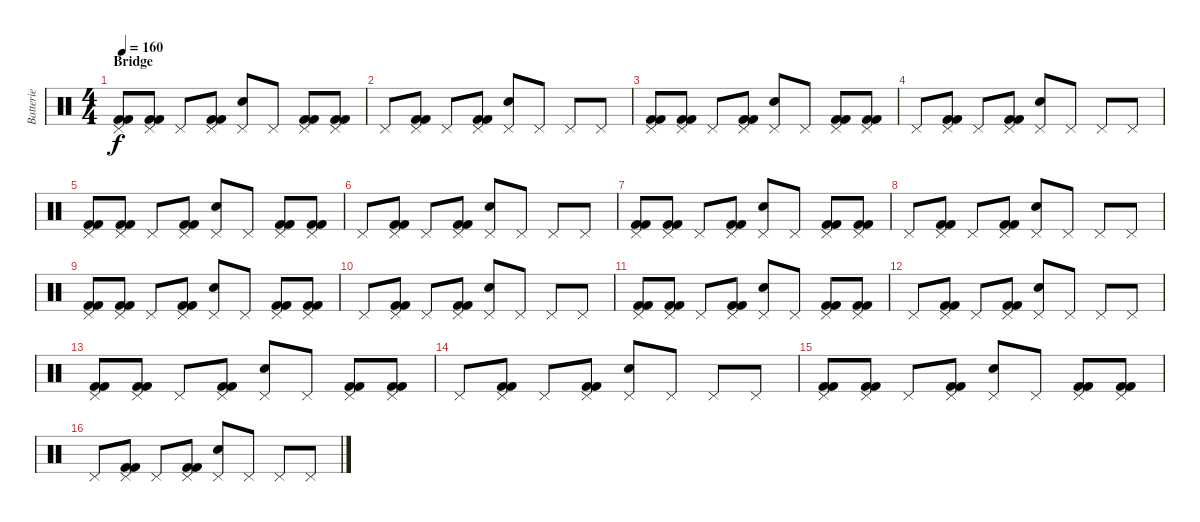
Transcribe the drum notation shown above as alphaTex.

\track ("Batterie" "Batterie") {instrument percussion}
\staff {score}
\articulation defaults
\ts (4 4)
\section ("" "Bridge")
\tempo 160
\clef neutral
\ks c
("Pedal Hi-Hat (hit)" "Kick (hit) 2" "Kick (hit) 2").8{dy f} ("Pedal Hi-Hat (hit)" "Kick (hit) 2" "Kick (hit) 2").8 "Pedal Hi-Hat (hit)".8 ("Pedal Hi-Hat (hit)" "Kick (hit) 2" "Kick (hit) 2").8 ("Pedal Hi-Hat (hit)" "Electric Snare (hit)").8 "Pedal Hi-Hat (hit)".8 ("Pedal Hi-Hat (hit)" "Kick (hit) 2" "Kick (hit) 2").8 ("Pedal Hi-Hat (hit)" "Kick (hit) 2" "Kick (hit) 2").8 |
"Pedal Hi-Hat (hit)".8 ("Pedal Hi-Hat (hit)" "Kick (hit) 2" "Kick (hit) 2").8 "Pedal Hi-Hat (hit)".8 ("Pedal Hi-Hat (hit)" "Kick (hit) 2" "Kick (hit) 2").8 ("Pedal Hi-Hat (hit)" "Electric Snare (hit)").8 "Pedal Hi-Hat (hit)".8 "Pedal Hi-Hat (hit)".8 "Pedal Hi-Hat (hit)".8 |
("Pedal Hi-Hat (hit)" "Kick (hit) 2" "Kick (hit) 2").8 ("Pedal Hi-Hat (hit)" "Kick (hit) 2" "Kick (hit) 2").8 "Pedal Hi-Hat (hit)".8 ("Pedal Hi-Hat (hit)" "Kick (hit) 2" "Kick (hit) 2").8 ("Pedal Hi-Hat (hit)" "Electric Snare (hit)").8 "Pedal Hi-Hat (hit)".8 ("Pedal Hi-Hat (hit)" "Kick (hit) 2" "Kick (hit) 2").8 ("Pedal Hi-Hat (hit)" "Kick (hit) 2" "Kick (hit) 2").8 |
"Pedal Hi-Hat (hit)".8 ("Pedal Hi-Hat (hit)" "Kick (hit) 2" "Kick (hit) 2").8 "Pedal Hi-Hat (hit)".8 ("Pedal Hi-Hat (hit)" "Kick (hit) 2" "Kick (hit) 2").8 ("Pedal Hi-Hat (hit)" "Electric Snare (hit)").8 "Pedal Hi-Hat (hit)".8 "Pedal Hi-Hat (hit)".8 "Pedal Hi-Hat (hit)".8 |
("Pedal Hi-Hat (hit)" "Kick (hit) 2" "Kick (hit) 2").8 ("Pedal Hi-Hat (hit)" "Kick (hit) 2" "Kick (hit) 2").8 "Pedal Hi-Hat (hit)".8 ("Pedal Hi-Hat (hit)" "Kick (hit) 2" "Kick (hit) 2").8 ("Pedal Hi-Hat (hit)" "Electric Snare (hit)").8 "Pedal Hi-Hat (hit)".8 ("Pedal Hi-Hat (hit)" "Kick (hit) 2" "Kick (hit) 2").8 ("Pedal Hi-Hat (hit)" "Kick (hit) 2" "Kick (hit) 2").8 |
"Pedal Hi-Hat (hit)".8 ("Pedal Hi-Hat (hit)" "Kick (hit) 2" "Kick (hit) 2").8 "Pedal Hi-Hat (hit)".8 ("Pedal Hi-Hat (hit)" "Kick (hit) 2" "Kick (hit) 2").8 ("Pedal Hi-Hat (hit)" "Electric Snare (hit)").8 "Pedal Hi-Hat (hit)".8 "Pedal Hi-Hat (hit)".8 "Pedal Hi-Hat (hit)".8 |
("Pedal Hi-Hat (hit)" "Kick (hit) 2" "Kick (hit) 2").8 ("Pedal Hi-Hat (hit)" "Kick (hit) 2" "Kick (hit) 2").8 "Pedal Hi-Hat (hit)".8 ("Pedal Hi-Hat (hit)" "Kick (hit) 2" "Kick (hit) 2").8 ("Pedal Hi-Hat (hit)" "Electric Snare (hit)").8 "Pedal Hi-Hat (hit)".8 ("Pedal Hi-Hat (hit)" "Kick (hit) 2" "Kick (hit) 2").8 ("Pedal Hi-Hat (hit)" "Kick (hit) 2" "Kick (hit) 2").8 |
"Pedal Hi-Hat (hit)".8 ("Pedal Hi-Hat (hit)" "Kick (hit) 2" "Kick (hit) 2").8 "Pedal Hi-Hat (hit)".8 ("Pedal Hi-Hat (hit)" "Kick (hit) 2" "Kick (hit) 2").8 ("Pedal Hi-Hat (hit)" "Electric Snare (hit)").8 "Pedal Hi-Hat (hit)".8 "Pedal Hi-Hat (hit)".8 "Pedal Hi-Hat (hit)".8 |
("Pedal Hi-Hat (hit)" "Kick (hit) 2" "Kick (hit) 2").8 ("Pedal Hi-Hat (hit)" "Kick (hit) 2" "Kick (hit) 2").8 "Pedal Hi-Hat (hit)".8 ("Pedal Hi-Hat (hit)" "Kick (hit) 2" "Kick (hit) 2").8 ("Pedal Hi-Hat (hit)" "Electric Snare (hit)").8 "Pedal Hi-Hat (hit)".8 ("Pedal Hi-Hat (hit)" "Kick (hit) 2" "Kick (hit) 2").8 ("Pedal Hi-Hat (hit)" "Kick (hit) 2" "Kick (hit) 2").8 |
"Pedal Hi-Hat (hit)".8 ("Pedal Hi-Hat (hit)" "Kick (hit) 2" "Kick (hit) 2").8 "Pedal Hi-Hat (hit)".8 ("Pedal Hi-Hat (hit)" "Kick (hit) 2" "Kick (hit) 2").8 ("Pedal Hi-Hat (hit)" "Electric Snare (hit)").8 "Pedal Hi-Hat (hit)".8 "Pedal Hi-Hat (hit)".8 "Pedal Hi-Hat (hit)".8 |
("Pedal Hi-Hat (hit)" "Kick (hit) 2" "Kick (hit) 2").8 ("Pedal Hi-Hat (hit)" "Kick (hit) 2" "Kick (hit) 2").8 "Pedal Hi-Hat (hit)".8 ("Pedal Hi-Hat (hit)" "Kick (hit) 2" "Kick (hit) 2").8 ("Pedal Hi-Hat (hit)" "Electric Snare (hit)").8 "Pedal Hi-Hat (hit)".8 ("Pedal Hi-Hat (hit)" "Kick (hit) 2" "Kick (hit) 2").8 ("Pedal Hi-Hat (hit)" "Kick (hit) 2" "Kick (hit) 2").8 |
"Pedal Hi-Hat (hit)".8 ("Pedal Hi-Hat (hit)" "Kick (hit) 2" "Kick (hit) 2").8 "Pedal Hi-Hat (hit)".8 ("Pedal Hi-Hat (hit)" "Kick (hit) 2" "Kick (hit) 2").8 ("Pedal Hi-Hat (hit)" "Electric Snare (hit)").8 "Pedal Hi-Hat (hit)".8 "Pedal Hi-Hat (hit)".8 "Pedal Hi-Hat (hit)".8 |
("Pedal Hi-Hat (hit)" "Kick (hit) 2" "Kick (hit) 2").8 ("Pedal Hi-Hat (hit)" "Kick (hit) 2" "Kick (hit) 2").8 "Pedal Hi-Hat (hit)".8 ("Pedal Hi-Hat (hit)" "Kick (hit) 2" "Kick (hit) 2").8 ("Pedal Hi-Hat (hit)" "Electric Snare (hit)").8 "Pedal Hi-Hat (hit)".8 ("Pedal Hi-Hat (hit)" "Kick (hit) 2" "Kick (hit) 2").8 ("Pedal Hi-Hat (hit)" "Kick (hit) 2" "Kick (hit) 2").8 |
"Pedal Hi-Hat (hit)".8 ("Pedal Hi-Hat (hit)" "Kick (hit) 2" "Kick (hit) 2").8 "Pedal Hi-Hat (hit)".8 ("Pedal Hi-Hat (hit)" "Kick (hit) 2" "Kick (hit) 2").8 ("Pedal Hi-Hat (hit)" "Electric Snare (hit)").8 "Pedal Hi-Hat (hit)".8 "Pedal Hi-Hat (hit)".8 "Pedal Hi-Hat (hit)".8 |
("Pedal Hi-Hat (hit)" "Kick (hit) 2" "Kick (hit) 2").8 ("Pedal Hi-Hat (hit)" "Kick (hit) 2" "Kick (hit) 2").8 "Pedal Hi-Hat (hit)".8 ("Pedal Hi-Hat (hit)" "Kick (hit) 2" "Kick (hit) 2").8 ("Pedal Hi-Hat (hit)" "Electric Snare (hit)").8 "Pedal Hi-Hat (hit)".8 ("Pedal Hi-Hat (hit)" "Kick (hit) 2" "Kick (hit) 2").8 ("Pedal Hi-Hat (hit)" "Kick (hit) 2" "Kick (hit) 2").8 |
"Pedal Hi-Hat (hit)".8 ("Pedal Hi-Hat (hit)" "Kick (hit) 2" "Kick (hit) 2").8 "Pedal Hi-Hat (hit)".8 ("Pedal Hi-Hat (hit)" "Kick (hit) 2" "Kick (hit) 2").8 ("Pedal Hi-Hat (hit)" "Electric Snare (hit)").8 "Pedal Hi-Hat (hit)".8 "Pedal Hi-Hat (hit)".8 "Pedal Hi-Hat (hit)".8
